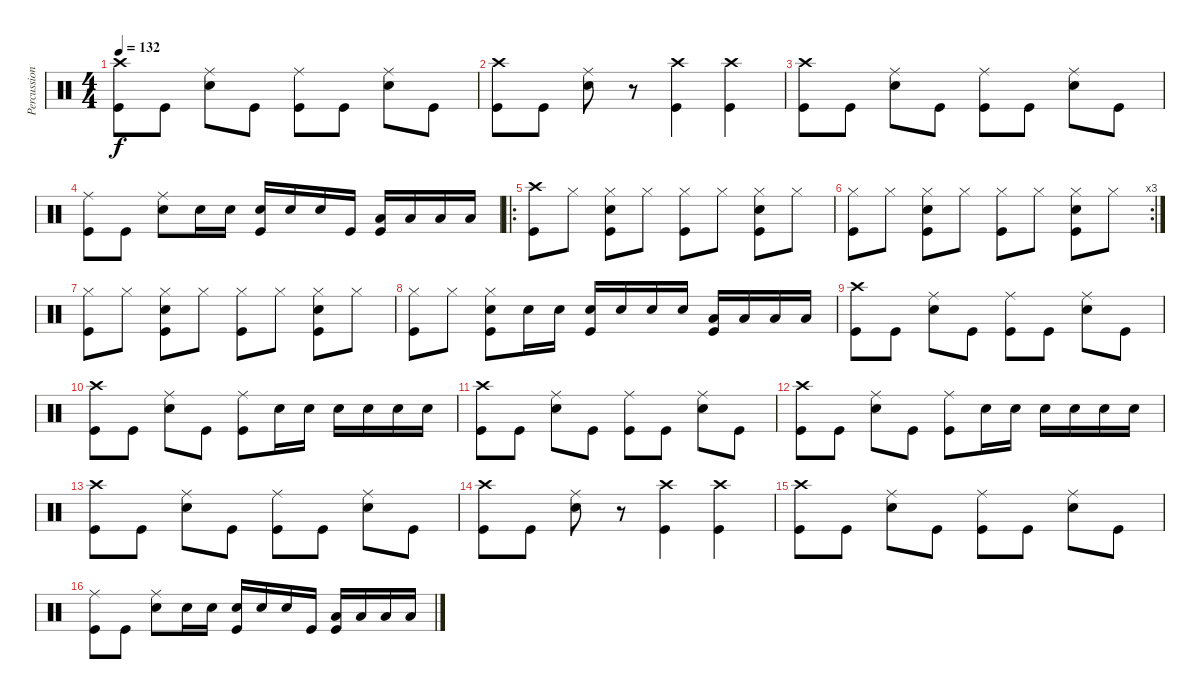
\track ("Percussioni" "Percussion") {instrument percussion}
\staff {score}
\articulation defaults
\ts (4 4)
\tempo 132
\clef neutral
\ks c
("Crash high (hit)" "Kick (hit)").8{dy f} "Kick (hit)".8 ("Ride (middle)" "Snare (hit) 2").8 "Kick (hit)".8 ("Ride (middle)" "Kick (hit)").8 "Kick (hit)".8 ("Ride (middle)" "Snare (hit) 2").8 "Kick (hit)".8 |
("Crash high (hit)" "Kick (hit)").8 "Kick (hit)".8 ("Ride (middle)" "Snare (hit) 2").8 r.8 ("Crash high (hit)" "Kick (hit)").4 ("Crash high (hit)" "Kick (hit)").4 |
("Crash high (hit)" "Kick (hit)").8 "Kick (hit)".8 ("Ride (middle)" "Snare (hit) 2").8 "Kick (hit)".8 ("Ride (middle)" "Kick (hit)").8 "Kick (hit)".8 ("Ride (middle)" "Snare (hit) 2").8 "Kick (hit)".8 |
("Ride (middle)" "Kick (hit)").8 "Kick (hit)".8 ("Ride (middle)" "Snare (hit) 2").8 "Snare (hit) 2".16 "Snare (hit) 2".16 ("Snare (hit) 2" "Kick (hit)").16 "Snare (hit) 2".16 "Snare (hit) 2".16 "Kick (hit)".16 ("Low Tom (hit)" "Kick (hit)").16 "Low Tom (hit)".16 "Low Tom (hit)".16 "Low Tom (hit)".16 |
\ro
("Crash high (hit)" "Kick (hit)").8 "Hi-Hat (closed)".8 ("Hi-Hat (closed)" "Snare (hit) 2" "Kick (hit)").8 "Hi-Hat (closed)".8 ("Hi-Hat (closed)" "Kick (hit)").8 "Hi-Hat (closed)".8 ("Hi-Hat (closed)" "Snare (hit) 2" "Kick (hit)").8 "Hi-Hat (closed)".8 |
\rc 3
("Hi-Hat (closed)" "Kick (hit)").8 "Hi-Hat (closed)".8 ("Hi-Hat (closed)" "Snare (hit) 2" "Kick (hit)").8 "Hi-Hat (closed)".8 ("Hi-Hat (closed)" "Kick (hit)").8 "Hi-Hat (closed)".8 ("Hi-Hat (closed)" "Snare (hit) 2" "Kick (hit)").8 "Hi-Hat (closed)".8 |
("Hi-Hat (closed)" "Kick (hit)").8 "Hi-Hat (closed)".8 ("Hi-Hat (closed)" "Snare (hit) 2" "Kick (hit)").8 "Hi-Hat (closed)".8 ("Hi-Hat (closed)" "Kick (hit)").8 "Hi-Hat (closed)".8 ("Hi-Hat (closed)" "Snare (hit) 2" "Kick (hit)").8 "Hi-Hat (closed)".8 |
("Hi-Hat (closed)" "Kick (hit)").8 "Hi-Hat (closed)".8 ("Hi-Hat (closed)" "Snare (hit) 2" "Kick (hit)").8 "Snare (hit) 2".16 "Snare (hit) 2".16 ("Snare (hit) 2" "Kick (hit)").16 "Snare (hit) 2".16 "Snare (hit) 2".16 "Snare (hit) 2".16 ("Low Tom (hit)" "Kick (hit)").16 "Low Tom (hit)".16 "Low Tom (hit)".16 "Low Tom (hit)".16 |
("Crash high (hit)" "Kick (hit)").8 "Kick (hit)".8 ("Ride (middle)" "Snare (hit) 2").8 "Kick (hit)".8 ("Ride (middle)" "Kick (hit)").8 "Kick (hit)".8 ("Ride (middle)" "Snare (hit) 2").8 "Kick (hit)".8 |
("Crash high (hit)" "Kick (hit)").8 "Kick (hit)".8 ("Ride (middle)" "Snare (hit) 2").8 "Kick (hit)".8 ("Ride (middle)" "Kick (hit)").8 "Snare (hit) 2".16 "Snare (hit) 2".16 "Snare (hit) 2".16 "Snare (hit) 2".16 "Snare (hit) 2".16 "Snare (hit) 2".16 |
("Crash high (hit)" "Kick (hit)").8 "Kick (hit)".8 ("Ride (middle)" "Snare (hit) 2").8 "Kick (hit)".8 ("Ride (middle)" "Kick (hit)").8 "Kick (hit)".8 ("Ride (middle)" "Snare (hit) 2").8 "Kick (hit)".8 |
("Crash high (hit)" "Kick (hit)").8 "Kick (hit)".8 ("Ride (middle)" "Snare (hit) 2").8 "Kick (hit)".8 ("Ride (middle)" "Kick (hit)").8 "Snare (hit) 2".16 "Snare (hit) 2".16 "Snare (hit) 2".16 "Snare (hit) 2".16 "Snare (hit) 2".16 "Snare (hit) 2".16 |
("Crash high (hit)" "Kick (hit)").8 "Kick (hit)".8 ("Ride (middle)" "Snare (hit) 2").8 "Kick (hit)".8 ("Ride (middle)" "Kick (hit)").8 "Kick (hit)".8 ("Ride (middle)" "Snare (hit) 2").8 "Kick (hit)".8 |
("Crash high (hit)" "Kick (hit)").8 "Kick (hit)".8 ("Ride (middle)" "Snare (hit) 2").8 r.8 ("Crash high (hit)" "Kick (hit)").4 ("Crash high (hit)" "Kick (hit)").4 |
("Crash high (hit)" "Kick (hit)").8 "Kick (hit)".8 ("Ride (middle)" "Snare (hit) 2").8 "Kick (hit)".8 ("Ride (middle)" "Kick (hit)").8 "Kick (hit)".8 ("Ride (middle)" "Snare (hit) 2").8 "Kick (hit)".8 |
("Ride (middle)" "Kick (hit)").8 "Kick (hit)".8 ("Ride (middle)" "Snare (hit) 2").8 "Snare (hit) 2".16 "Snare (hit) 2".16 ("Snare (hit) 2" "Kick (hit)").16 "Snare (hit) 2".16 "Snare (hit) 2".16 "Kick (hit)".16 ("Low Tom (hit)" "Kick (hit)").16 "Low Tom (hit)".16 "Low Tom (hit)".16 "Low Tom (hit)".16
